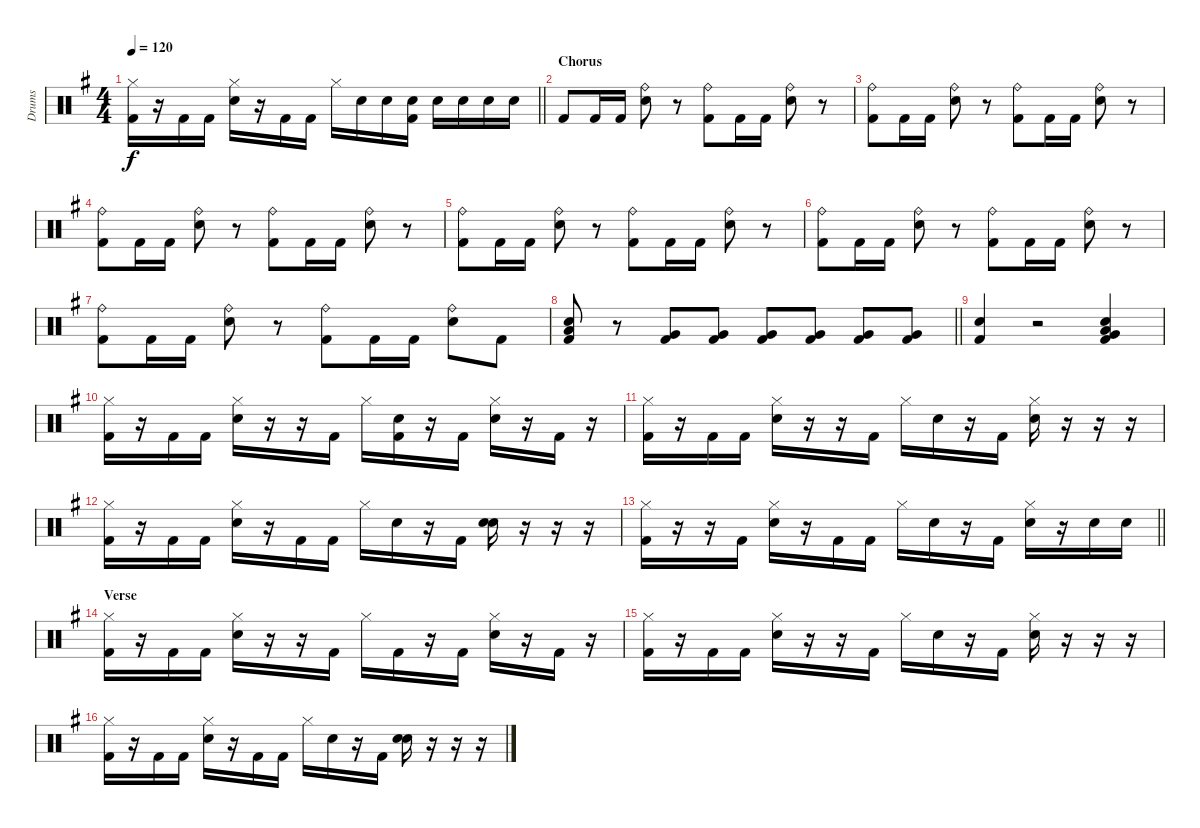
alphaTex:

\track ("Drums" "Drums") {instrument percussion}
\staff {score}
\articulation defaults
\ts (4 4)
\tempo 120
\clef neutral
\barLineRight lightlight
\ks g
("Hi-Hat (closed)" "Kick (hit) 2").16{dy f} r.16 "Kick (hit) 2".16 "Kick (hit) 2".16 ("Hi-Hat (closed)" "Electric Snare (hit)").16 r.16 "Kick (hit) 2".16 "Kick (hit) 2".16 "Hi-Hat (closed)".16 "Electric Snare (hit)".16 "Electric Snare (hit)".16 ("Electric Snare (hit)" "Kick (hit) 2").16 "Electric Snare (hit)".16 "Electric Snare (hit)".16 "Electric Snare (hit)".16 "Electric Snare (hit)".16 |
\section ("" "Chorus")
"Kick (hit) 2".8 "Kick (hit) 2".16 "Kick (hit) 2".16 ("Ride (bell)" "Electric Snare (hit)").8 r.8 ("Ride (bell)" "Kick (hit) 2").8 "Kick (hit) 2".16 "Kick (hit) 2".16 ("Ride (bell)" "Electric Snare (hit)").8 r.8 |
("Ride (bell)" "Kick (hit) 2").8 "Kick (hit) 2".16 "Kick (hit) 2".16 ("Ride (bell)" "Electric Snare (hit)").8 r.8 ("Ride (bell)" "Kick (hit) 2").8 "Kick (hit) 2".16 "Kick (hit) 2".16 ("Ride (bell)" "Electric Snare (hit)").8 r.8 |
("Ride (bell)" "Kick (hit) 2").8 "Kick (hit) 2".16 "Kick (hit) 2".16 ("Ride (bell)" "Electric Snare (hit)").8 r.8 ("Ride (bell)" "Kick (hit) 2").8 "Kick (hit) 2".16 "Kick (hit) 2".16 ("Ride (bell)" "Electric Snare (hit)").8 r.8 |
("Ride (bell)" "Kick (hit) 2").8 "Kick (hit) 2".16 "Kick (hit) 2".16 ("Ride (bell)" "Electric Snare (hit)").8 r.8 ("Ride (bell)" "Kick (hit) 2").8 "Kick (hit) 2".16 "Kick (hit) 2".16 ("Ride (bell)" "Electric Snare (hit)").8 r.8 |
("Ride (bell)" "Kick (hit) 2").8 "Kick (hit) 2".16 "Kick (hit) 2".16 ("Ride (bell)" "Electric Snare (hit)").8 r.8 ("Ride (bell)" "Kick (hit) 2").8 "Kick (hit) 2".16 "Kick (hit) 2".16 ("Ride (bell)" "Electric Snare (hit)").8 r.8 |
("Ride (bell)" "Kick (hit) 2").8 "Kick (hit) 2".16 "Kick (hit) 2".16 ("Ride (bell)" "Electric Snare (hit)").8 r.8 ("Ride (bell)" "Kick (hit) 2").8 "Kick (hit) 2".16 "Kick (hit) 2".16 ("Ride (bell)" "Electric Snare (hit)").8 "Kick (hit) 2".8 |
\barLineRight lightlight
("Electric Snare (hit)" "Low Tom (hit)" "Kick (hit) 2").8 r.8 ("Very Low Tom (hit)" "Kick (hit) 2").8 ("Very Low Tom (hit)" "Kick (hit) 2").8 ("Very Low Tom (hit)" "Kick (hit) 2").8 ("Very Low Tom (hit)" "Kick (hit) 2").8 ("Very Low Tom (hit)" "Kick (hit) 2").8 ("Very Low Tom (hit)" "Kick (hit) 2").8 |
("Electric Snare (hit)" "Kick (hit) 2").4 r.2 ("Electric Snare (hit)" "Very Low Tom (hit)" "Low Floor Tom (hit)" "Kick (hit) 2").4 |
("Hi-Hat (closed)" "Kick (hit) 2").16 r.16 "Kick (hit) 2".16 "Kick (hit) 2".16 ("Hi-Hat (closed)" "Electric Snare (hit)").16 r.16 r.16 "Kick (hit) 2".16 "Hi-Hat (closed)".16 ("Electric Snare (hit)" "Kick (hit) 2").16 r.16 "Kick (hit) 2".16 ("Hi-Hat (closed)" "Electric Snare (hit)").16 r.16 "Kick (hit) 2".16 r.16 |
("Hi-Hat (closed)" "Kick (hit) 2").16 r.16 "Kick (hit) 2".16 "Kick (hit) 2".16 ("Hi-Hat (closed)" "Electric Snare (hit)").16 r.16 r.16 "Kick (hit) 2".16 "Hi-Hat (closed)".16 "Electric Snare (hit)".16 r.16 "Kick (hit) 2".16 ("Hi-Hat (closed)" "Electric Snare (hit)").16 r.16 r.16 r.16 |
("Hi-Hat (closed)" "Kick (hit) 2").16 r.16 "Kick (hit) 2".16 "Kick (hit) 2".16 ("Hi-Hat (closed)" "Electric Snare (hit)").16 r.16 "Kick (hit) 2".16 "Kick (hit) 2".16 "Hi-Hat (closed)".16 "Electric Snare (hit)".16 r.16 "Kick (hit) 2".16 ("Electric Snare (hit)" "Electric Snare (hit)").16 r.16 r.16 r.16 |
\barLineRight lightlight
("Hi-Hat (closed)" "Kick (hit) 2").16 r.16 r.16 "Kick (hit) 2".16 ("Hi-Hat (closed)" "Electric Snare (hit)").16 r.16 "Kick (hit) 2".16 "Kick (hit) 2".16 "Hi-Hat (closed)".16 "Electric Snare (hit)".16 r.16 "Kick (hit) 2".16 ("Hi-Hat (closed)" "Electric Snare (hit)").16 r.16 "Electric Snare (hit)".16 "Electric Snare (hit)".16 |
\section ("" "Verse")
("Hi-Hat (closed)" "Kick (hit) 2").16 r.16 "Kick (hit) 2".16 "Kick (hit) 2".16 ("Hi-Hat (closed)" "Electric Snare (hit)").16 r.16 r.16 "Kick (hit) 2".16 "Hi-Hat (closed)".16 "Kick (hit) 2".16 r.16 "Kick (hit) 2".16 ("Hi-Hat (closed)" "Electric Snare (hit)").16 r.16 "Kick (hit) 2".16 r.16 |
("Hi-Hat (closed)" "Kick (hit) 2").16 r.16 "Kick (hit) 2".16 "Kick (hit) 2".16 ("Hi-Hat (closed)" "Electric Snare (hit)").16 r.16 r.16 "Kick (hit) 2".16 "Hi-Hat (closed)".16 "Electric Snare (hit)".16 r.16 "Kick (hit) 2".16 ("Hi-Hat (closed)" "Electric Snare (hit)").16 r.16 r.16 r.16 |
("Hi-Hat (closed)" "Kick (hit) 2").16 r.16 "Kick (hit) 2".16 "Kick (hit) 2".16 ("Hi-Hat (closed)" "Electric Snare (hit)").16 r.16 "Kick (hit) 2".16 "Kick (hit) 2".16 "Hi-Hat (closed)".16 "Electric Snare (hit)".16 r.16 "Kick (hit) 2".16 ("Electric Snare (hit)" "Electric Snare (hit)").16 r.16 r.16 r.16
